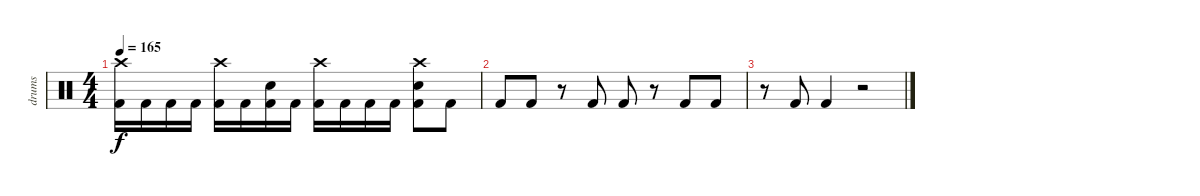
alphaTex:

\track ("drums" "drums") {instrument percussion}
\staff {score}
\articulation defaults
\ts (4 4)
\tempo 165
\clef neutral
\ks c
("Crash high (hit)" "Kick (hit) 2").16{dy f} "Kick (hit) 2".16 "Kick (hit) 2".16 "Kick (hit) 2".16 ("Crash high (hit)" "Kick (hit) 2").16 "Kick (hit) 2".16 ("Electric Snare (hit)" "Kick (hit) 2").16 "Kick (hit) 2".16 ("Crash high (hit)" "Kick (hit) 2").16 "Kick (hit) 2".16 "Kick (hit) 2".16 "Kick (hit) 2".16 ("Crash high (hit)" "Electric Snare (hit)" "Kick (hit) 2").8 "Kick (hit) 2".8 |
"Kick (hit) 2".8 "Kick (hit) 2".8 r.8 "Kick (hit) 2".8 "Kick (hit) 2".8 r.8 "Kick (hit) 2".8 "Kick (hit) 2".8 |
r.8 "Kick (hit) 2".8 "Kick (hit) 2".4 r.2
